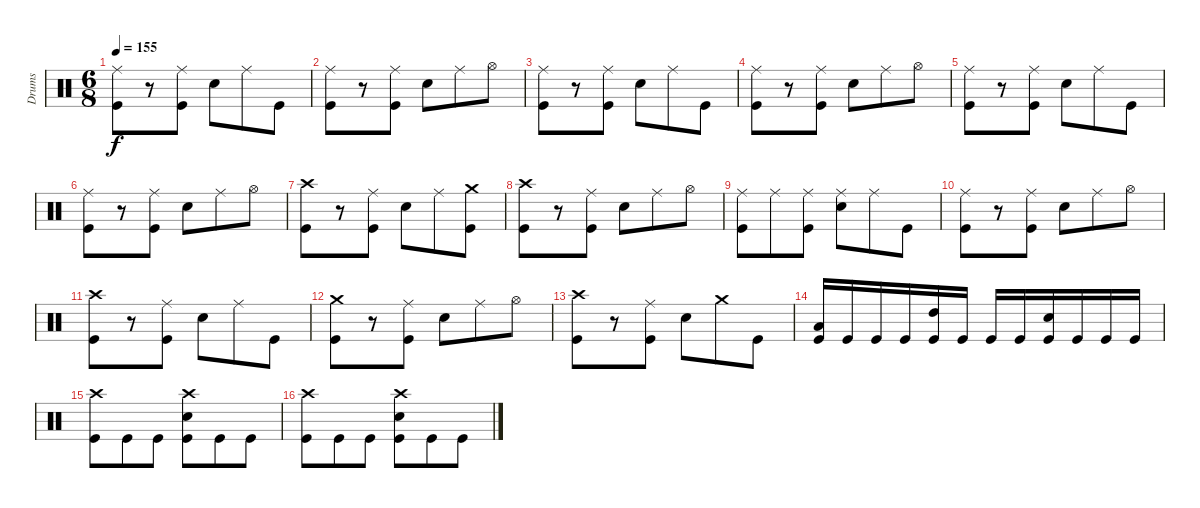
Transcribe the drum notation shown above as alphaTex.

\track ("Drums" "Drums") {instrument percussion}
\staff {score}
\articulation defaults
\ts (6 8)
\tempo 155
\clef neutral
\ks c
("Kick (hit)" "Ride (middle)").8{dy f} r.8 ("Kick (hit)" "Ride (middle)").8 "Snare (hit) 2".8 "Ride (middle)".8 "Kick (hit)".8 |
("Kick (hit)" "Ride (middle)").8 r.8 ("Kick (hit)" "Ride (middle)").8 "Snare (hit) 2".8 "Ride (middle)".8 "Hi-Hat (open)".8 |
("Kick (hit)" "Ride (middle)").8 r.8 ("Kick (hit)" "Ride (middle)").8 "Snare (hit) 2".8 "Ride (middle)".8 "Kick (hit)".8 |
("Kick (hit)" "Ride (middle)").8 r.8 ("Kick (hit)" "Ride (middle)").8 "Snare (hit) 2".8 "Ride (middle)".8 "Hi-Hat (open)".8 |
("Kick (hit)" "Ride (middle)").8 r.8 ("Kick (hit)" "Ride (middle)").8 "Snare (hit) 2".8 "Ride (middle)".8 "Kick (hit)".8 |
("Kick (hit)" "Ride (middle)").8 r.8 ("Kick (hit)" "Ride (middle)").8 "Snare (hit) 2".8 "Ride (middle)".8 "Hi-Hat (open)".8 |
("Kick (hit)" "Crash high (hit)").8 r.8 ("Kick (hit)" "Ride (middle)").8 "Snare (hit) 2".8 "Ride (middle)".8 ("Kick (hit)" "Crash medium (hit)").8 |
("Kick (hit)" "Crash high (hit)").8 r.8 ("Kick (hit)" "Ride (middle)").8 "Snare (hit) 2".8 "Ride (middle)".8 "Hi-Hat (open)".8 |
("Kick (hit)" "Ride (middle)").8 "Ride (middle)".8 ("Kick (hit)" "Ride (middle)").8 ("Snare (hit) 2" "Ride (middle)").8 "Ride (middle)".8 "Kick (hit)".8 |
("Kick (hit)" "Ride (middle)").8 r.8 ("Kick (hit)" "Ride (middle)").8 "Snare (hit) 2".8 "Ride (middle)".8 "Hi-Hat (open)".8 |
("Kick (hit)" "Crash high (hit)").8 r.8 ("Kick (hit)" "Ride (middle)").8 "Snare (hit) 2".8 "Ride (middle)".8 "Kick (hit)".8 |
("Kick (hit)" "Crash medium (hit)").8 r.8 ("Kick (hit)" "Ride (middle)").8 "Snare (hit) 2".8 "Ride (middle)".8 "Hi-Hat (open)".8 |
("Kick (hit)" "Crash high (hit)").8 r.8 ("Kick (hit)" "Ride (middle)").8 "Snare (hit) 2".8 "Crash medium (hit)".8 "Kick (hit)".8 |
("Kick (hit)" "Low Tom (hit)").16 "Kick (hit)".16 "Kick (hit)".16 "Kick (hit)".16 ("Kick (hit)" "High Tom (hit)").16 "Kick (hit)".16 "Kick (hit)".16 "Kick (hit)".16 ("Kick (hit)" "Snare (hit) 2").16 "Kick (hit)".16 "Kick (hit)".16 "Kick (hit)".16 |
("Kick (hit)" "Crash high (hit)").8 "Kick (hit)".8 "Kick (hit)".8 ("Kick (hit)" "Snare (hit) 2" "Crash high (hit)").8 "Kick (hit)".8 "Kick (hit)".8 |
("Kick (hit)" "Crash high (hit)").8 "Kick (hit)".8 "Kick (hit)".8 ("Kick (hit)" "Snare (hit) 2" "Crash high (hit)").8 "Kick (hit)".8 "Kick (hit)".8
